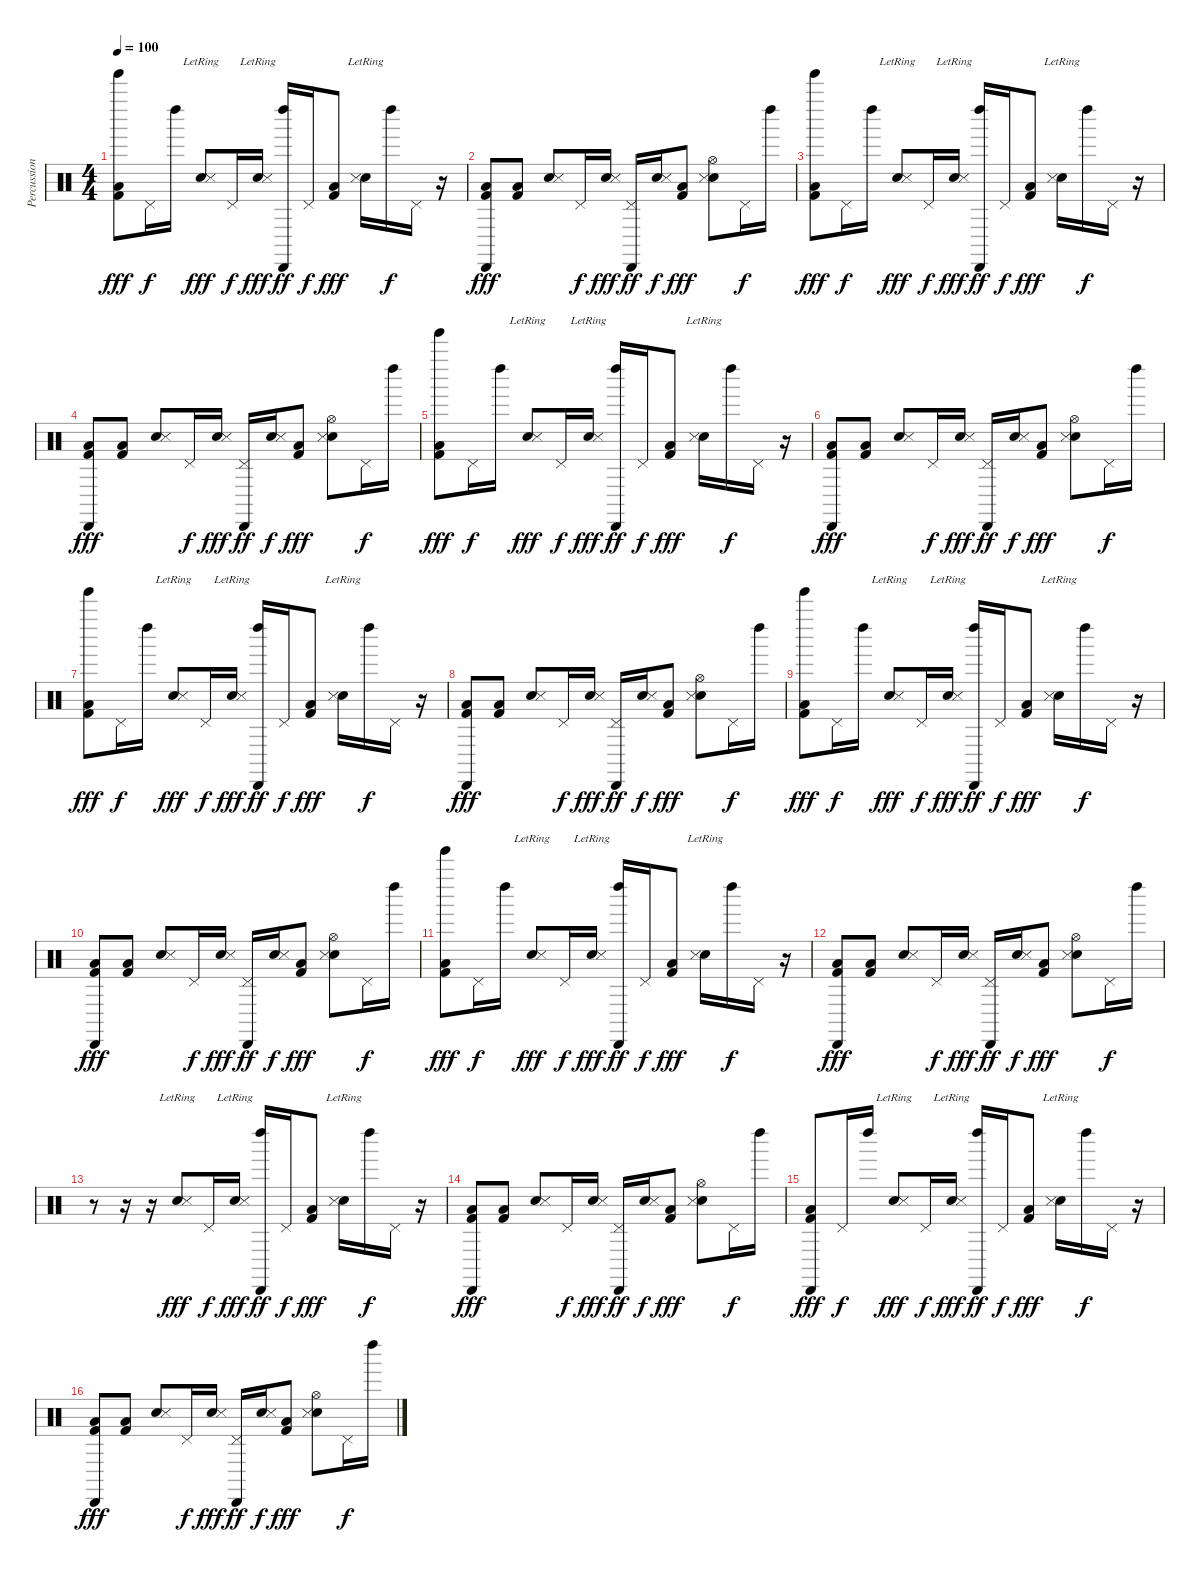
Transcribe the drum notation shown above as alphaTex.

\track ("Percussion" "Percussion") {instrument percussion}
\staff {score}
\articulation defaults
\ts (4 4)
\tempo 100
\clef neutral
\ks c
("Tinkle Bell (hit)" "Low Floor Tom (hit)" "Kick (hit) 2").8{dy fff} "Pedal Hi-Hat (hit)".16{dy f} "Left Maraca (hit)".16 ("Electric Snare (hit)" "Snare (side stick) 3"{lr}).8{dy fff} "Pedal Hi-Hat (hit)".16{dy f} ("Electric Snare (hit)" "Snare (side stick) 3"{lr}).16{dy fff} ("Cabasa (hit)" "Left Maraca (hit)").16{dy ff} "Pedal Hi-Hat (hit)".16{dy f} ("Low Floor Tom (hit)" "Kick (hit) 2").8{dy fff} ("Electric Snare (hit)"{lr} "Snare (side stick) 3"{lr}).16 "Left Maraca (hit)".16{dy f} "Pedal Hi-Hat (hit)".16 r.16 |
("Cabasa (hit)" "Low Floor Tom (hit)" "Kick (hit) 2").8{dy fff} ("Low Floor Tom (hit)" "Kick (hit) 2").8 ("Electric Snare (hit)" "Snare (side stick) 3").8 "Pedal Hi-Hat (hit)".16{dy f} ("Electric Snare (hit)" "Snare (side stick) 3").16{dy fff} ("Cabasa (hit)" "Pedal Hi-Hat (hit)").16{dy ff} ("Electric Snare (hit)" "Snare (side stick) 3").16{dy f} ("Low Floor Tom (hit)" "Kick (hit) 2").8{dy fff} ("Hi-Hat (open)" "Electric Snare (hit)" "Snare (side stick) 3").8 "Pedal Hi-Hat (hit)".16{dy f} "Left Maraca (hit)".16 |
("Tinkle Bell (hit)" "Low Floor Tom (hit)" "Kick (hit) 2").8{dy fff} "Pedal Hi-Hat (hit)".16{dy f} "Left Maraca (hit)".16 ("Electric Snare (hit)" "Snare (side stick) 3"{lr}).8{dy fff} "Pedal Hi-Hat (hit)".16{dy f} ("Electric Snare (hit)" "Snare (side stick) 3"{lr}).16{dy fff} ("Cabasa (hit)" "Left Maraca (hit)").16{dy ff} "Pedal Hi-Hat (hit)".16{dy f} ("Low Floor Tom (hit)" "Kick (hit) 2").8{dy fff} ("Electric Snare (hit)"{lr} "Snare (side stick) 3"{lr}).16 "Left Maraca (hit)".16{dy f} "Pedal Hi-Hat (hit)".16 r.16 |
("Cabasa (hit)" "Low Floor Tom (hit)" "Kick (hit) 2").8{dy fff} ("Low Floor Tom (hit)" "Kick (hit) 2").8 ("Electric Snare (hit)" "Snare (side stick) 3").8 "Pedal Hi-Hat (hit)".16{dy f} ("Electric Snare (hit)" "Snare (side stick) 3").16{dy fff} ("Cabasa (hit)" "Pedal Hi-Hat (hit)").16{dy ff} ("Electric Snare (hit)" "Snare (side stick) 3").16{dy f} ("Low Floor Tom (hit)" "Kick (hit) 2").8{dy fff} ("Hi-Hat (open)" "Electric Snare (hit)" "Snare (side stick) 3").8 "Pedal Hi-Hat (hit)".16{dy f} "Left Maraca (hit)".16 |
("Tinkle Bell (hit)" "Low Floor Tom (hit)" "Kick (hit) 2").8{dy fff} "Pedal Hi-Hat (hit)".16{dy f} "Left Maraca (hit)".16 ("Electric Snare (hit)" "Snare (side stick) 3"{lr}).8{dy fff} "Pedal Hi-Hat (hit)".16{dy f} ("Electric Snare (hit)" "Snare (side stick) 3"{lr}).16{dy fff} ("Cabasa (hit)" "Left Maraca (hit)").16{dy ff} "Pedal Hi-Hat (hit)".16{dy f} ("Low Floor Tom (hit)" "Kick (hit) 2").8{dy fff} ("Electric Snare (hit)"{lr} "Snare (side stick) 3"{lr}).16 "Left Maraca (hit)".16{dy f} "Pedal Hi-Hat (hit)".16 r.16 |
("Cabasa (hit)" "Low Floor Tom (hit)" "Kick (hit) 2").8{dy fff} ("Low Floor Tom (hit)" "Kick (hit) 2").8 ("Electric Snare (hit)" "Snare (side stick) 3").8 "Pedal Hi-Hat (hit)".16{dy f} ("Electric Snare (hit)" "Snare (side stick) 3").16{dy fff} ("Cabasa (hit)" "Pedal Hi-Hat (hit)").16{dy ff} ("Electric Snare (hit)" "Snare (side stick) 3").16{dy f} ("Low Floor Tom (hit)" "Kick (hit) 2").8{dy fff} ("Hi-Hat (open)" "Electric Snare (hit)" "Snare (side stick) 3").8 "Pedal Hi-Hat (hit)".16{dy f} "Left Maraca (hit)".16 |
("Tinkle Bell (hit)" "Low Floor Tom (hit)" "Kick (hit) 2").8{dy fff} "Pedal Hi-Hat (hit)".16{dy f} "Left Maraca (hit)".16 ("Electric Snare (hit)" "Snare (side stick) 3"{lr}).8{dy fff} "Pedal Hi-Hat (hit)".16{dy f} ("Electric Snare (hit)" "Snare (side stick) 3"{lr}).16{dy fff} ("Cabasa (hit)" "Left Maraca (hit)").16{dy ff} "Pedal Hi-Hat (hit)".16{dy f} ("Low Floor Tom (hit)" "Kick (hit) 2").8{dy fff} ("Electric Snare (hit)"{lr} "Snare (side stick) 3"{lr}).16 "Left Maraca (hit)".16{dy f} "Pedal Hi-Hat (hit)".16 r.16 |
("Cabasa (hit)" "Low Floor Tom (hit)" "Kick (hit) 2").8{dy fff} ("Low Floor Tom (hit)" "Kick (hit) 2").8 ("Electric Snare (hit)" "Snare (side stick) 3").8 "Pedal Hi-Hat (hit)".16{dy f} ("Electric Snare (hit)" "Snare (side stick) 3").16{dy fff} ("Cabasa (hit)" "Pedal Hi-Hat (hit)").16{dy ff} ("Electric Snare (hit)" "Snare (side stick) 3").16{dy f} ("Low Floor Tom (hit)" "Kick (hit) 2").8{dy fff} ("Hi-Hat (open)" "Electric Snare (hit)" "Snare (side stick) 3").8 "Pedal Hi-Hat (hit)".16{dy f} "Left Maraca (hit)".16 |
("Tinkle Bell (hit)" "Low Floor Tom (hit)" "Kick (hit) 2").8{dy fff} "Pedal Hi-Hat (hit)".16{dy f} "Left Maraca (hit)".16 ("Electric Snare (hit)" "Snare (side stick) 3"{lr}).8{dy fff} "Pedal Hi-Hat (hit)".16{dy f} ("Electric Snare (hit)" "Snare (side stick) 3"{lr}).16{dy fff} ("Cabasa (hit)" "Left Maraca (hit)").16{dy ff} "Pedal Hi-Hat (hit)".16{dy f} ("Low Floor Tom (hit)" "Kick (hit) 2").8{dy fff} ("Electric Snare (hit)"{lr} "Snare (side stick) 3"{lr}).16 "Left Maraca (hit)".16{dy f} "Pedal Hi-Hat (hit)".16 r.16 |
("Cabasa (hit)" "Low Floor Tom (hit)" "Kick (hit) 2").8{dy fff} ("Low Floor Tom (hit)" "Kick (hit) 2").8 ("Electric Snare (hit)" "Snare (side stick) 3").8 "Pedal Hi-Hat (hit)".16{dy f} ("Electric Snare (hit)" "Snare (side stick) 3").16{dy fff} ("Cabasa (hit)" "Pedal Hi-Hat (hit)").16{dy ff} ("Electric Snare (hit)" "Snare (side stick) 3").16{dy f} ("Low Floor Tom (hit)" "Kick (hit) 2").8{dy fff} ("Hi-Hat (open)" "Electric Snare (hit)" "Snare (side stick) 3").8 "Pedal Hi-Hat (hit)".16{dy f} "Left Maraca (hit)".16 |
("Tinkle Bell (hit)" "Low Floor Tom (hit)" "Kick (hit) 2").8{dy fff} "Pedal Hi-Hat (hit)".16{dy f} "Left Maraca (hit)".16 ("Electric Snare (hit)" "Snare (side stick) 3"{lr}).8{dy fff} "Pedal Hi-Hat (hit)".16{dy f} ("Electric Snare (hit)" "Snare (side stick) 3"{lr}).16{dy fff} ("Cabasa (hit)" "Left Maraca (hit)").16{dy ff} "Pedal Hi-Hat (hit)".16{dy f} ("Low Floor Tom (hit)" "Kick (hit) 2").8{dy fff} ("Electric Snare (hit)"{lr} "Snare (side stick) 3"{lr}).16 "Left Maraca (hit)".16{dy f} "Pedal Hi-Hat (hit)".16 r.16 |
("Cabasa (hit)" "Low Floor Tom (hit)" "Kick (hit) 2").8{dy fff} ("Low Floor Tom (hit)" "Kick (hit) 2").8 ("Electric Snare (hit)" "Snare (side stick) 3").8 "Pedal Hi-Hat (hit)".16{dy f} ("Electric Snare (hit)" "Snare (side stick) 3").16{dy fff} ("Cabasa (hit)" "Pedal Hi-Hat (hit)").16{dy ff} ("Electric Snare (hit)" "Snare (side stick) 3").16{dy f} ("Low Floor Tom (hit)" "Kick (hit) 2").8{dy fff} ("Hi-Hat (open)" "Electric Snare (hit)" "Snare (side stick) 3").8 "Pedal Hi-Hat (hit)".16{dy f} "Left Maraca (hit)".16 |
r.8 r.16 r.16 ("Electric Snare (hit)" "Snare (side stick) 3"{lr}).8{dy fff} "Pedal Hi-Hat (hit)".16{dy f} ("Electric Snare (hit)" "Snare (side stick) 3"{lr}).16{dy fff} ("Cabasa (hit)" "Left Maraca (hit)").16{dy ff} "Pedal Hi-Hat (hit)".16{dy f} ("Low Floor Tom (hit)" "Kick (hit) 2").8{dy fff} ("Electric Snare (hit)"{lr} "Snare (side stick) 3"{lr}).16 "Left Maraca (hit)".16{dy f} "Pedal Hi-Hat (hit)".16 r.16 |
("Cabasa (hit)" "Low Floor Tom (hit)" "Kick (hit) 2").8{dy fff} ("Low Floor Tom (hit)" "Kick (hit) 2").8 ("Electric Snare (hit)" "Snare (side stick) 3").8 "Pedal Hi-Hat (hit)".16{dy f} ("Electric Snare (hit)" "Snare (side stick) 3").16{dy fff} ("Cabasa (hit)" "Pedal Hi-Hat (hit)").16{dy ff} ("Electric Snare (hit)" "Snare (side stick) 3").16{dy f} ("Low Floor Tom (hit)" "Kick (hit) 2").8{dy fff} ("Hi-Hat (open)" "Electric Snare (hit)" "Snare (side stick) 3").8 "Pedal Hi-Hat (hit)".16{dy f} "Left Maraca (hit)".16 |
("Cabasa (hit)" "Low Floor Tom (hit)" "Kick (hit) 2").8{dy fff} "Pedal Hi-Hat (hit)".16{dy f} "Left Maraca (hit)".16 ("Electric Snare (hit)" "Snare (side stick) 3"{lr}).8{dy fff} "Pedal Hi-Hat (hit)".16{dy f} ("Electric Snare (hit)" "Snare (side stick) 3"{lr}).16{dy fff} ("Cabasa (hit)" "Left Maraca (hit)").16{dy ff} "Pedal Hi-Hat (hit)".16{dy f} ("Low Floor Tom (hit)" "Kick (hit) 2").8{dy fff} ("Electric Snare (hit)"{lr} "Snare (side stick) 3"{lr}).16 "Left Maraca (hit)".16{dy f} "Pedal Hi-Hat (hit)".16 r.16 |
("Cabasa (hit)" "Low Floor Tom (hit)" "Kick (hit) 2").8{dy fff} ("Low Floor Tom (hit)" "Kick (hit) 2").8 ("Electric Snare (hit)" "Snare (side stick) 3").8 "Pedal Hi-Hat (hit)".16{dy f} ("Electric Snare (hit)" "Snare (side stick) 3").16{dy fff} ("Cabasa (hit)" "Pedal Hi-Hat (hit)").16{dy ff} ("Electric Snare (hit)" "Snare (side stick) 3").16{dy f} ("Low Floor Tom (hit)" "Kick (hit) 2").8{dy fff} ("Hi-Hat (open)" "Electric Snare (hit)" "Snare (side stick) 3").8 "Pedal Hi-Hat (hit)".16{dy f} "Left Maraca (hit)".16
